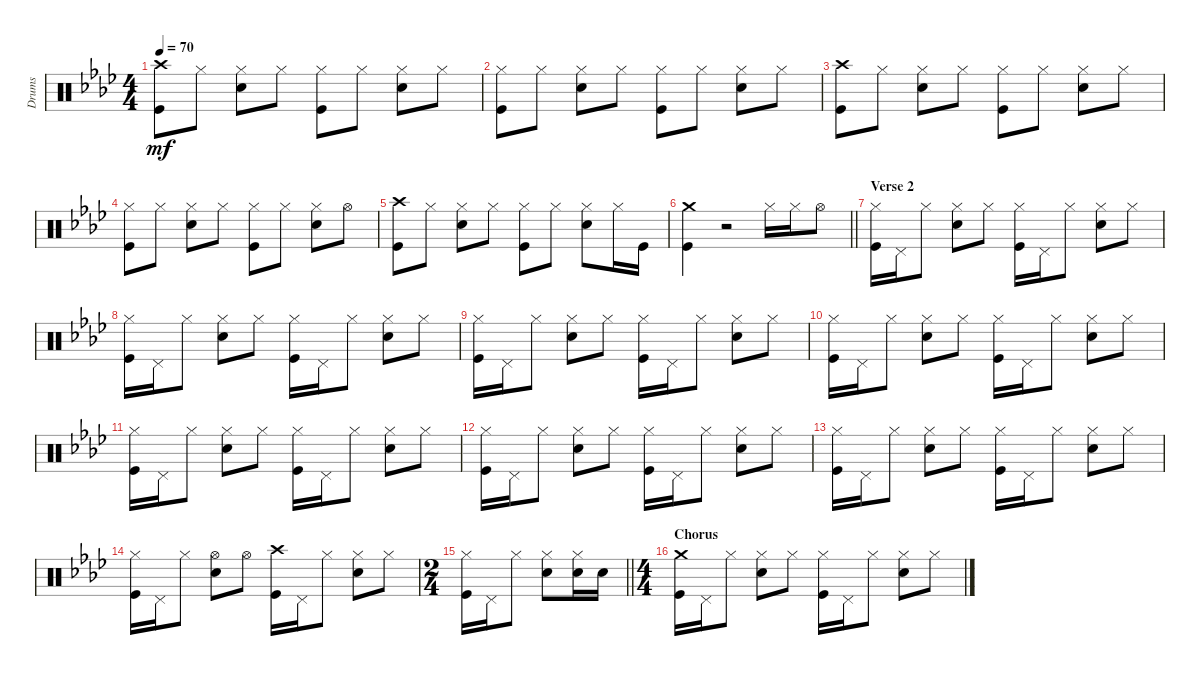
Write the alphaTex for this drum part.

\track ("Drums" "Drums") {instrument percussion}
\staff {score}
\articulation defaults
\ts (4 4)
\tempo 70
\clef neutral
\ks ab
("Crash high (hit)" "Kick (hit)").8{dy mf} "Hi-Hat (closed)".8 ("Hi-Hat (closed)" "Electric Snare (hit)").8 "Hi-Hat (closed)".8 ("Hi-Hat (closed)" "Kick (hit)").8 "Hi-Hat (closed)".8 ("Hi-Hat (closed)" "Electric Snare (hit)").8 "Hi-Hat (closed)".8 |
("Hi-Hat (closed)" "Kick (hit)").8 "Hi-Hat (closed)".8 ("Hi-Hat (closed)" "Electric Snare (hit)").8 "Hi-Hat (closed)".8 ("Hi-Hat (closed)" "Kick (hit)").8 "Hi-Hat (closed)".8 ("Hi-Hat (closed)" "Electric Snare (hit)").8 "Hi-Hat (closed)".8 |
("Crash high (hit)" "Kick (hit)").8 "Hi-Hat (closed)".8 ("Hi-Hat (closed)" "Electric Snare (hit)").8 "Hi-Hat (closed)".8 ("Hi-Hat (closed)" "Kick (hit)").8 "Hi-Hat (closed)".8 ("Hi-Hat (closed)" "Electric Snare (hit)").8 "Hi-Hat (closed)".8 |
("Hi-Hat (closed)" "Kick (hit)").8 "Hi-Hat (closed)".8 ("Hi-Hat (closed)" "Electric Snare (hit)").8 "Hi-Hat (closed)".8 ("Hi-Hat (closed)" "Kick (hit)").8 "Hi-Hat (closed)".8 ("Hi-Hat (closed)" "Electric Snare (hit)").8 "Hi-Hat (open)".8 |
("Crash high (hit)" "Kick (hit)").8 "Hi-Hat (closed)".8 ("Hi-Hat (closed)" "Electric Snare (hit)").8 "Hi-Hat (closed)".8 ("Hi-Hat (closed)" "Kick (hit)").8 "Hi-Hat (closed)".8 ("Hi-Hat (closed)" "Electric Snare (hit)").8 "Hi-Hat (closed)".16 "Kick (hit)".16 |
\barLineRight lightlight
("Crash medium (hit)" "Kick (hit)").4 r.2 "Hi-Hat (closed)".16 "Hi-Hat (closed)".16 "Hi-Hat (open)".8 |
\section ("" "Verse 2")
("Hi-Hat (closed)" "Kick (hit)").16 "Pedal Hi-Hat (hit)".16 "Hi-Hat (closed)".8 ("Hi-Hat (closed)" "Electric Snare (hit)").8 "Hi-Hat (closed)".8 ("Hi-Hat (closed)" "Kick (hit)").16 "Pedal Hi-Hat (hit)".16 "Hi-Hat (closed)".8 ("Hi-Hat (closed)" "Electric Snare (hit)").8 "Hi-Hat (closed)".8 |
("Hi-Hat (closed)" "Kick (hit)").16 "Pedal Hi-Hat (hit)".16 "Hi-Hat (closed)".8 ("Hi-Hat (closed)" "Electric Snare (hit)").8 "Hi-Hat (closed)".8 ("Hi-Hat (closed)" "Kick (hit)").16 "Pedal Hi-Hat (hit)".16 "Hi-Hat (closed)".8 ("Hi-Hat (closed)" "Electric Snare (hit)").8 "Hi-Hat (closed)".8 |
("Hi-Hat (closed)" "Kick (hit)").16 "Pedal Hi-Hat (hit)".16 "Hi-Hat (closed)".8 ("Hi-Hat (closed)" "Electric Snare (hit)").8 "Hi-Hat (closed)".8 ("Hi-Hat (closed)" "Kick (hit)").16 "Pedal Hi-Hat (hit)".16 "Hi-Hat (closed)".8 ("Hi-Hat (closed)" "Electric Snare (hit)").8 "Hi-Hat (closed)".8 |
("Hi-Hat (closed)" "Kick (hit)").16 "Pedal Hi-Hat (hit)".16 "Hi-Hat (closed)".8 ("Hi-Hat (closed)" "Electric Snare (hit)").8 "Hi-Hat (closed)".8 ("Hi-Hat (closed)" "Kick (hit)").16 "Pedal Hi-Hat (hit)".16 "Hi-Hat (closed)".8 ("Hi-Hat (closed)" "Electric Snare (hit)").8 "Hi-Hat (closed)".8 |
("Hi-Hat (closed)" "Kick (hit)").16 "Pedal Hi-Hat (hit)".16 "Hi-Hat (closed)".8 ("Hi-Hat (closed)" "Electric Snare (hit)").8 "Hi-Hat (closed)".8 ("Hi-Hat (closed)" "Kick (hit)").16 "Pedal Hi-Hat (hit)".16 "Hi-Hat (closed)".8 ("Hi-Hat (closed)" "Electric Snare (hit)").8 "Hi-Hat (closed)".8 |
("Hi-Hat (closed)" "Kick (hit)").16 "Pedal Hi-Hat (hit)".16 "Hi-Hat (closed)".8 ("Hi-Hat (closed)" "Electric Snare (hit)").8 "Hi-Hat (closed)".8 ("Hi-Hat (closed)" "Kick (hit)").16 "Pedal Hi-Hat (hit)".16 "Hi-Hat (closed)".8 ("Hi-Hat (closed)" "Electric Snare (hit)").8 "Hi-Hat (closed)".8 |
("Hi-Hat (closed)" "Kick (hit)").16 "Pedal Hi-Hat (hit)".16 "Hi-Hat (closed)".8 ("Hi-Hat (closed)" "Electric Snare (hit)").8 "Hi-Hat (closed)".8 ("Hi-Hat (closed)" "Kick (hit)").16 "Pedal Hi-Hat (hit)".16 "Hi-Hat (closed)".8 ("Hi-Hat (closed)" "Electric Snare (hit)").8 "Hi-Hat (closed)".8 |
("Hi-Hat (closed)" "Kick (hit)").16 "Pedal Hi-Hat (hit)".16 "Hi-Hat (closed)".8 ("Hi-Hat (open)" "Electric Snare (hit)").8 "Hi-Hat (open)".8 ("Crash high (hit)" "Kick (hit)").16 "Pedal Hi-Hat (hit)".16 "Hi-Hat (closed)".8 ("Hi-Hat (closed)" "Electric Snare (hit)").8 "Hi-Hat (closed)".8 |
\ts (2 4)
\barLineRight lightlight
("Hi-Hat (closed)" "Kick (hit)").16 "Pedal Hi-Hat (hit)".16 "Hi-Hat (closed)".8 ("Hi-Hat (closed)" "Electric Snare (hit)").8 ("Hi-Hat (closed)" "Electric Snare (hit)").16 "Electric Snare (hit)".16 |
\ts (4 4)
\section ("" "Chorus")
("Crash medium (hit)" "Kick (hit)").16 "Pedal Hi-Hat (hit)".16 "Hi-Hat (closed)".8 ("Hi-Hat (closed)" "Electric Snare (hit)").8 "Hi-Hat (closed)".8 ("Hi-Hat (closed)" "Kick (hit)").16 "Pedal Hi-Hat (hit)".16 "Hi-Hat (closed)".8 ("Hi-Hat (closed)" "Electric Snare (hit)").8 "Hi-Hat (closed)".8
